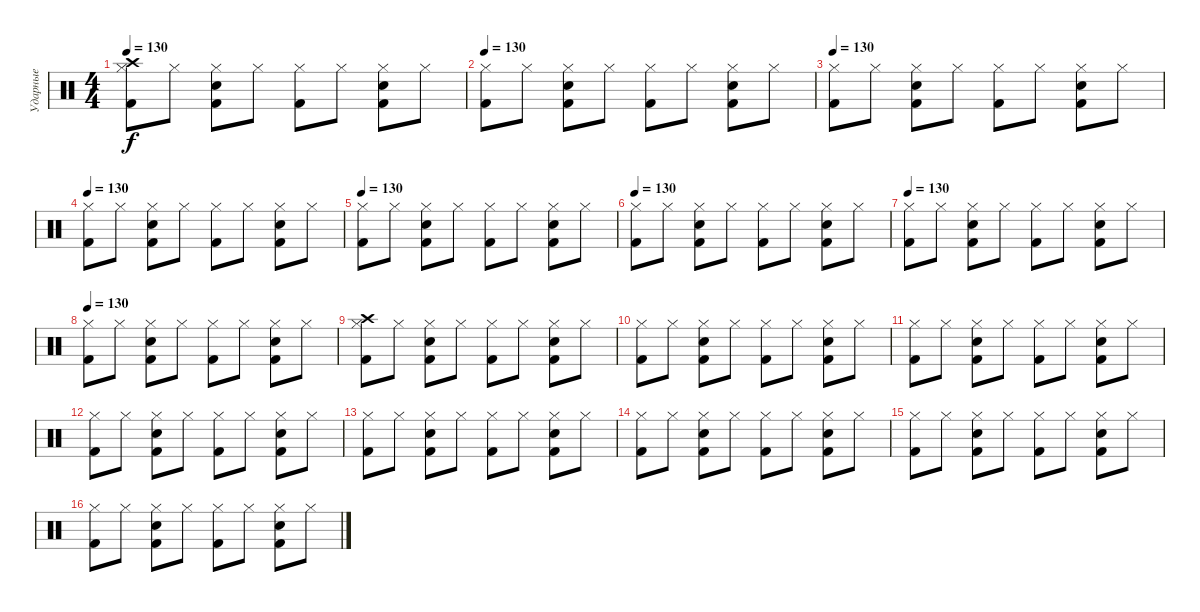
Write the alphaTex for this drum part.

\track ("Ударные" "Ударные") {instrument percussion}
\staff {score}
\articulation defaults
\ts (4 4)
\tempo 130
\clef neutral
\ks c
("Crash high (hit)" "Hi-Hat (closed)" "Kick (hit) 2").8{dy f} "Hi-Hat (closed)".8 ("Hi-Hat (closed)" "Snare (hit) 2" "Kick (hit) 2").8 "Hi-Hat (closed)".8 ("Hi-Hat (closed)" "Kick (hit) 2").8 "Hi-Hat (closed)".8 ("Hi-Hat (closed)" "Snare (hit) 2" "Kick (hit) 2").8 "Hi-Hat (closed)".8 |
\tempo 130
("Hi-Hat (closed)" "Kick (hit) 2").8 "Hi-Hat (closed)".8 ("Hi-Hat (closed)" "Snare (hit) 2" "Kick (hit) 2").8 "Hi-Hat (closed)".8 ("Hi-Hat (closed)" "Kick (hit) 2").8 "Hi-Hat (closed)".8 ("Hi-Hat (closed)" "Snare (hit) 2" "Kick (hit) 2").8 "Hi-Hat (closed)".8 |
\tempo 130
("Hi-Hat (closed)" "Kick (hit) 2").8 "Hi-Hat (closed)".8 ("Hi-Hat (closed)" "Snare (hit) 2" "Kick (hit) 2").8 "Hi-Hat (closed)".8 ("Hi-Hat (closed)" "Kick (hit) 2").8 "Hi-Hat (closed)".8 ("Hi-Hat (closed)" "Snare (hit) 2" "Kick (hit) 2").8 "Hi-Hat (closed)".8 |
\tempo 130
("Hi-Hat (closed)" "Kick (hit) 2").8 "Hi-Hat (closed)".8 ("Hi-Hat (closed)" "Snare (hit) 2" "Kick (hit) 2").8 "Hi-Hat (closed)".8 ("Hi-Hat (closed)" "Kick (hit) 2").8 "Hi-Hat (closed)".8 ("Hi-Hat (closed)" "Snare (hit) 2" "Kick (hit) 2").8 "Hi-Hat (closed)".8 |
\tempo 130
("Hi-Hat (closed)" "Kick (hit) 2").8 "Hi-Hat (closed)".8 ("Hi-Hat (closed)" "Snare (hit) 2" "Kick (hit) 2").8 "Hi-Hat (closed)".8 ("Hi-Hat (closed)" "Kick (hit) 2").8 "Hi-Hat (closed)".8 ("Hi-Hat (closed)" "Snare (hit) 2" "Kick (hit) 2").8 "Hi-Hat (closed)".8 |
\tempo 130
("Hi-Hat (closed)" "Kick (hit) 2").8 "Hi-Hat (closed)".8 ("Hi-Hat (closed)" "Snare (hit) 2" "Kick (hit) 2").8 "Hi-Hat (closed)".8 ("Hi-Hat (closed)" "Kick (hit) 2").8 "Hi-Hat (closed)".8 ("Hi-Hat (closed)" "Snare (hit) 2" "Kick (hit) 2").8 "Hi-Hat (closed)".8 |
\tempo 130
("Hi-Hat (closed)" "Kick (hit) 2").8 "Hi-Hat (closed)".8 ("Hi-Hat (closed)" "Snare (hit) 2" "Kick (hit) 2").8 "Hi-Hat (closed)".8 ("Hi-Hat (closed)" "Kick (hit) 2").8 "Hi-Hat (closed)".8 ("Hi-Hat (closed)" "Snare (hit) 2" "Kick (hit) 2").8 "Hi-Hat (closed)".8 |
\tempo 130
("Hi-Hat (closed)" "Kick (hit) 2").8 "Hi-Hat (closed)".8 ("Hi-Hat (closed)" "Snare (hit) 2" "Kick (hit) 2").8 "Hi-Hat (closed)".8 ("Hi-Hat (closed)" "Kick (hit) 2").8 "Hi-Hat (closed)".8 ("Hi-Hat (closed)" "Snare (hit) 2" "Kick (hit) 2").8 "Hi-Hat (closed)".8 |
("Crash high (hit)" "Hi-Hat (closed)" "Kick (hit) 2").8 "Hi-Hat (closed)".8 ("Hi-Hat (closed)" "Snare (hit) 2" "Kick (hit) 2").8 "Hi-Hat (closed)".8 ("Hi-Hat (closed)" "Kick (hit) 2").8 "Hi-Hat (closed)".8 ("Hi-Hat (closed)" "Snare (hit) 2" "Kick (hit) 2").8 "Hi-Hat (closed)".8 |
("Hi-Hat (closed)" "Kick (hit) 2").8 "Hi-Hat (closed)".8 ("Hi-Hat (closed)" "Snare (hit) 2" "Kick (hit) 2").8 "Hi-Hat (closed)".8 ("Hi-Hat (closed)" "Kick (hit) 2").8 "Hi-Hat (closed)".8 ("Hi-Hat (closed)" "Snare (hit) 2" "Kick (hit) 2").8 "Hi-Hat (closed)".8 |
("Hi-Hat (closed)" "Kick (hit) 2").8 "Hi-Hat (closed)".8 ("Hi-Hat (closed)" "Snare (hit) 2" "Kick (hit) 2").8 "Hi-Hat (closed)".8 ("Hi-Hat (closed)" "Kick (hit) 2").8 "Hi-Hat (closed)".8 ("Hi-Hat (closed)" "Snare (hit) 2" "Kick (hit) 2").8 "Hi-Hat (closed)".8 |
("Hi-Hat (closed)" "Kick (hit) 2").8 "Hi-Hat (closed)".8 ("Hi-Hat (closed)" "Snare (hit) 2" "Kick (hit) 2").8 "Hi-Hat (closed)".8 ("Hi-Hat (closed)" "Kick (hit) 2").8 "Hi-Hat (closed)".8 ("Hi-Hat (closed)" "Snare (hit) 2" "Kick (hit) 2").8 "Hi-Hat (closed)".8 |
("Hi-Hat (closed)" "Kick (hit) 2").8 "Hi-Hat (closed)".8 ("Hi-Hat (closed)" "Snare (hit) 2" "Kick (hit) 2").8 "Hi-Hat (closed)".8 ("Hi-Hat (closed)" "Kick (hit) 2").8 "Hi-Hat (closed)".8 ("Hi-Hat (closed)" "Snare (hit) 2" "Kick (hit) 2").8 "Hi-Hat (closed)".8 |
("Hi-Hat (closed)" "Kick (hit) 2").8 "Hi-Hat (closed)".8 ("Hi-Hat (closed)" "Snare (hit) 2" "Kick (hit) 2").8 "Hi-Hat (closed)".8 ("Hi-Hat (closed)" "Kick (hit) 2").8 "Hi-Hat (closed)".8 ("Hi-Hat (closed)" "Snare (hit) 2" "Kick (hit) 2").8 "Hi-Hat (closed)".8 |
("Hi-Hat (closed)" "Kick (hit) 2").8 "Hi-Hat (closed)".8 ("Hi-Hat (closed)" "Snare (hit) 2" "Kick (hit) 2").8 "Hi-Hat (closed)".8 ("Hi-Hat (closed)" "Kick (hit) 2").8 "Hi-Hat (closed)".8 ("Hi-Hat (closed)" "Snare (hit) 2" "Kick (hit) 2").8 "Hi-Hat (closed)".8 |
("Hi-Hat (closed)" "Kick (hit) 2").8 "Hi-Hat (closed)".8 ("Hi-Hat (closed)" "Snare (hit) 2" "Kick (hit) 2").8 "Hi-Hat (closed)".8 ("Hi-Hat (closed)" "Kick (hit) 2").8 "Hi-Hat (closed)".8 ("Hi-Hat (closed)" "Snare (hit) 2" "Kick (hit) 2").8 "Hi-Hat (closed)".8
